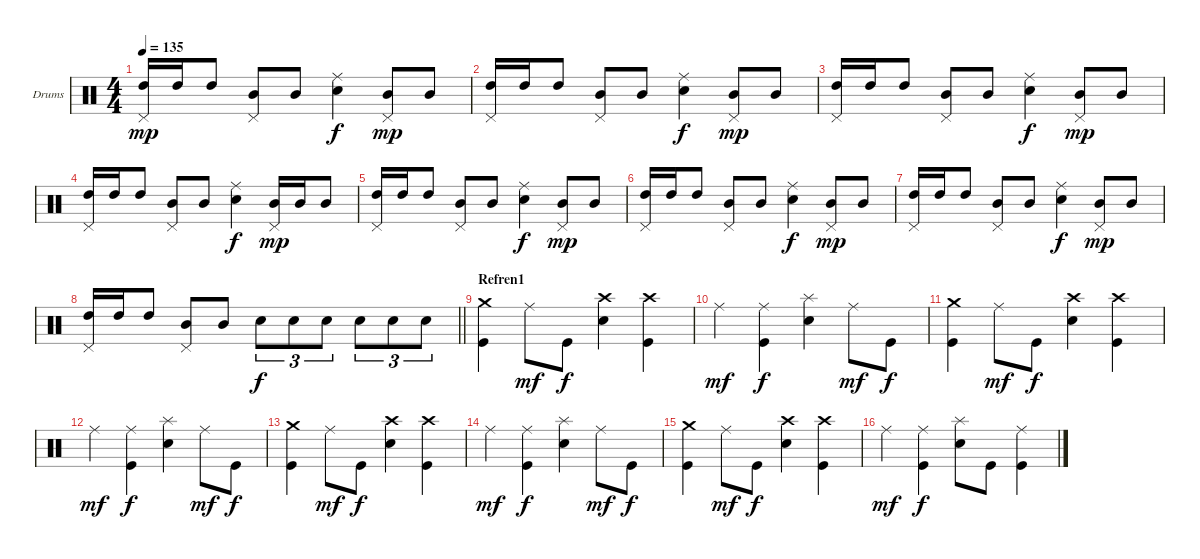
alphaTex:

\bracketExtendMode groupsimilarinstruments
\firstSystemTrackNameOrientation horizontal
\otherSystemsTrackNameOrientation horizontal
\track ("Drumkit" "Drums") {instrument percussion}
\staff {score}
\articulation defaults
\ts (4 4)
\tempo 135
\clef neutral
\ks c
("High Tom (hit)" "Pedal Hi-Hat (hit)").16{dy mp} "High Tom (hit)".16 "High Tom (hit)".8 ("Mid Tom (hit)" "Pedal Hi-Hat (hit)").8 "Mid Tom (hit)".8 ("Snare (hit) 2" "Ride (middle)").4{dy f} ("Mid Tom (hit)" "Pedal Hi-Hat (hit)").8{dy mp} "Mid Tom (hit)".8 |
("High Tom (hit)" "Pedal Hi-Hat (hit)").16 "High Tom (hit)".16 "High Tom (hit)".8 ("Mid Tom (hit)" "Pedal Hi-Hat (hit)").8 "Mid Tom (hit)".8 ("Snare (hit) 2" "Ride (middle)").4{dy f} ("Mid Tom (hit)" "Pedal Hi-Hat (hit)").8{dy mp} "Mid Tom (hit)".8 |
("High Tom (hit)" "Pedal Hi-Hat (hit)").16 "High Tom (hit)".16 "High Tom (hit)".8 ("Mid Tom (hit)" "Pedal Hi-Hat (hit)").8 "Mid Tom (hit)".8 ("Snare (hit) 2" "Ride (middle)").4{dy f} ("Mid Tom (hit)" "Pedal Hi-Hat (hit)").8{dy mp} "Mid Tom (hit)".8 |
("High Tom (hit)" "Pedal Hi-Hat (hit)").16 "High Tom (hit)".16 "High Tom (hit)".8 ("Mid Tom (hit)" "Pedal Hi-Hat (hit)").8 "Mid Tom (hit)".8 ("Snare (hit) 2" "Ride (middle)").4{dy f} ("Mid Tom (hit)" "Pedal Hi-Hat (hit)").16{dy mp} "Mid Tom (hit)".16 "Mid Tom (hit)".8 |
("High Tom (hit)" "Pedal Hi-Hat (hit)").16 "High Tom (hit)".16 "High Tom (hit)".8 ("Mid Tom (hit)" "Pedal Hi-Hat (hit)").8 "Mid Tom (hit)".8 ("Snare (hit) 2" "Ride (middle)").4{dy f} ("Mid Tom (hit)" "Pedal Hi-Hat (hit)").8{dy mp} "Mid Tom (hit)".8 |
("High Tom (hit)" "Pedal Hi-Hat (hit)").16 "High Tom (hit)".16 "High Tom (hit)".8 ("Mid Tom (hit)" "Pedal Hi-Hat (hit)").8 "Mid Tom (hit)".8 ("Snare (hit) 2" "Ride (middle)").4{dy f} ("Mid Tom (hit)" "Pedal Hi-Hat (hit)").8{dy mp} "Mid Tom (hit)".8 |
("High Tom (hit)" "Pedal Hi-Hat (hit)").16 "High Tom (hit)".16 "High Tom (hit)".8 ("Mid Tom (hit)" "Pedal Hi-Hat (hit)").8 "Mid Tom (hit)".8 ("Snare (hit) 2" "Ride (middle)").4{dy f} ("Mid Tom (hit)" "Pedal Hi-Hat (hit)").8{dy mp} "Mid Tom (hit)".8 |
\barLineRight lightlight
("High Tom (hit)" "Pedal Hi-Hat (hit)").16 "High Tom (hit)".16 "High Tom (hit)".8 ("Mid Tom (hit)" "Pedal Hi-Hat (hit)").8 "Mid Tom (hit)".8 "Snare (hit) 2".8{tu (3 2) dy f} "Snare (hit) 2".8{tu (3 2)} "Snare (hit) 2".8{tu (3 2)} "Snare (hit) 2".8{tu (3 2)} "Snare (hit) 2".8{tu (3 2)} "Snare (hit) 2".8{tu (3 2)} |
\section ("" "Refren1")
("Kick (hit)" "Crash medium (hit)").4 "Ride (middle)".8{dy mf} "Kick (hit)".8{dy f} ("Snare (hit) 2" "Crash high (hit)").4 ("Kick (hit)" "Crash high (hit)").4 |
"Ride (middle)".4{dy mf} ("Kick (hit)" "Ride (middle)").4{dy f} ("Snare (hit) 2" "Splash (hit)").4 "Ride (middle)".8{dy mf} "Kick (hit)".8{dy f} |
("Kick (hit)" "Crash medium (hit)").4 "Ride (middle)".8{dy mf} "Kick (hit)".8{dy f} ("Snare (hit) 2" "Crash high (hit)").4 ("Kick (hit)" "Crash high (hit)").4 |
"Ride (middle)".4{dy mf} ("Kick (hit)" "Ride (middle)").4{dy f} ("Snare (hit) 2" "Splash (hit)").4 "Ride (middle)".8{dy mf} "Kick (hit)".8{dy f} |
("Kick (hit)" "Crash medium (hit)").4 "Ride (middle)".8{dy mf} "Kick (hit)".8{dy f} ("Snare (hit) 2" "Crash high (hit)").4 ("Kick (hit)" "Crash high (hit)").4 |
"Ride (middle)".4{dy mf} ("Kick (hit)" "Ride (middle)").4{dy f} ("Snare (hit) 2" "Splash (hit)").4 "Ride (middle)".8{dy mf} "Kick (hit)".8{dy f} |
("Kick (hit)" "Crash medium (hit)").4 "Ride (middle)".8{dy mf} "Kick (hit)".8{dy f} ("Snare (hit) 2" "Crash high (hit)").4 ("Kick (hit)" "Crash high (hit)").4 |
"Ride (middle)".4{dy mf} ("Kick (hit)" "Ride (middle)").4{dy f} ("Snare (hit) 2" "Splash (hit)").8 "Kick (hit)".8 ("Kick (hit)" "Ride (middle)").4
